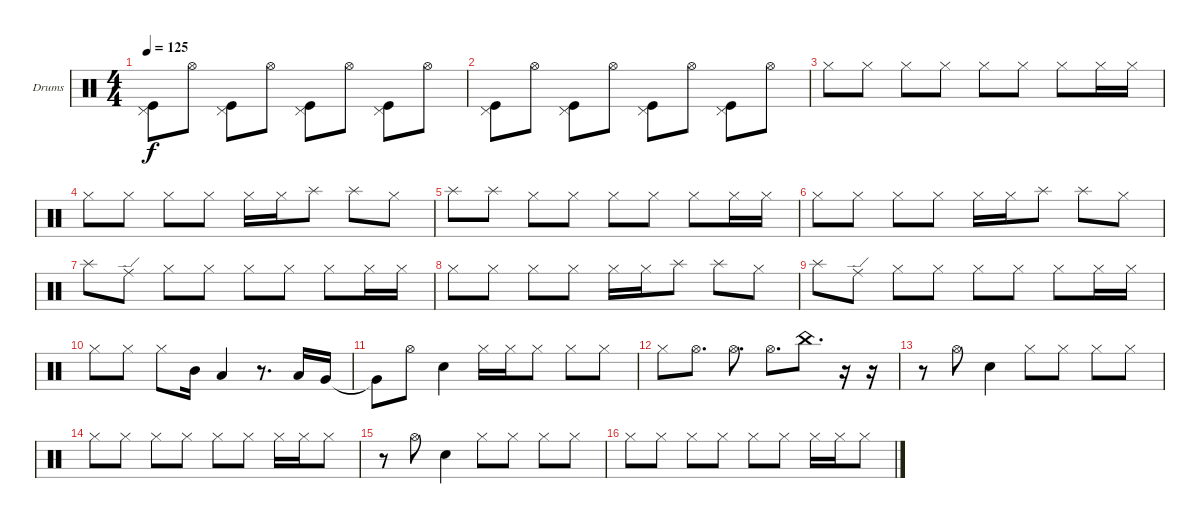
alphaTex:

\bracketExtendMode groupsimilarinstruments
\firstSystemTrackNameOrientation horizontal
\otherSystemsTrackNameOrientation horizontal
\track ("Drumkit" "Drums") {instrument percussion}
\staff {score}
\articulation defaults
\ts (4 4)
\tempo 125
\clef neutral
\ks c
("Pedal Hi-Hat (hit)" "Kick (hit)").8{dy f} "Hi-Hat (open)".8 ("Pedal Hi-Hat (hit)" "Kick (hit)").8 "Hi-Hat (open)".8 ("Pedal Hi-Hat (hit)" "Kick (hit)").8 "Hi-Hat (open)".8 ("Pedal Hi-Hat (hit)" "Kick (hit)").8 "Hi-Hat (open)".8 |
("Pedal Hi-Hat (hit)" "Kick (hit)").8 "Hi-Hat (open)".8 ("Pedal Hi-Hat (hit)" "Kick (hit)").8 "Hi-Hat (open)".8 ("Pedal Hi-Hat (hit)" "Kick (hit)").8 "Hi-Hat (open)".8 ("Pedal Hi-Hat (hit)" "Kick (hit)").8 "Hi-Hat (open)".8 |
"Hi-Hat (closed)".8 "Hi-Hat (closed)".8 "Hi-Hat (closed)".8 "Hi-Hat (closed)".8 "Hi-Hat (closed)".8 "Hi-Hat (closed)".8 "Hi-Hat (closed)".8 "Hi-Hat (closed)".16 "Hi-Hat (closed)".16 |
"Hi-Hat (closed)".8 "Hi-Hat (closed)".8 "Hi-Hat (closed)".8 "Hi-Hat (closed)".8 "Hi-Hat (closed)".16 "Hi-Hat (closed)".16 "Splash (hit)".8 "Splash (hit)".8 "Hi-Hat (closed)".8 |
"Splash (hit)".8 "Splash (hit)".8 "Hi-Hat (closed)".8 "Hi-Hat (closed)".8 "Hi-Hat (closed)".8 "Hi-Hat (closed)".8 "Hi-Hat (closed)".8 "Hi-Hat (closed)".16 "Hi-Hat (closed)".16 |
"Hi-Hat (closed)".8 "Hi-Hat (closed)".8 "Hi-Hat (closed)".8 "Hi-Hat (closed)".8 "Hi-Hat (closed)".16 "Hi-Hat (closed)".16 "Splash (hit)".8 "Splash (hit)".8 "Hi-Hat (closed)".8 |
"Splash (hit)".8 "Ride (edge)".8 "Hi-Hat (closed)".8 "Hi-Hat (closed)".8 "Hi-Hat (closed)".8 "Hi-Hat (closed)".8 "Hi-Hat (closed)".8 "Hi-Hat (closed)".16 "Hi-Hat (closed)".16 |
"Hi-Hat (closed)".8 "Hi-Hat (closed)".8 "Hi-Hat (closed)".8 "Hi-Hat (closed)".8 "Hi-Hat (closed)".16 "Hi-Hat (closed)".16 "Splash (hit)".8 "Splash (hit)".8 "Hi-Hat (closed)".8 |
"Splash (hit)".8 "Ride (edge)".8 "Hi-Hat (closed)".8 "Hi-Hat (closed)".8 "Hi-Hat (closed)".8 "Hi-Hat (closed)".8 "Hi-Hat (closed)".8 "Hi-Hat (closed)".16 "Hi-Hat (closed)".16 |
"Hi-Hat (closed)".8 "Hi-Hat (closed)".8 "Hi-Hat (closed)".8 "Mid Tom (hit)".16 "Low Tom (hit)".4 r.8{d} "Low Tom (hit)".16 "Very Low Tom (hit)".16 |
"Very Low Tom (hit)"{t}.8 "Hi-Hat (open)".8 "Snare (hit) 2".4 "Hi-Hat (closed)".16 "Hi-Hat (closed)".16 "Hi-Hat (closed)".8 "Hi-Hat (closed)".8 "Hi-Hat (closed)".8 |
"Hi-Hat (closed)".8 "Hi-Hat (open)".8{d} "Hi-Hat (open)".8{d} "Hi-Hat (open)".8{d} "China (hit)".8{d} r.16 r.16 |
r.8 "Hi-Hat (open)".8 "Snare (hit) 2".4 "Hi-Hat (closed)".8 "Hi-Hat (closed)".8 "Hi-Hat (closed)".8 "Hi-Hat (closed)".8 |
"Hi-Hat (closed)".8 "Hi-Hat (closed)".8 "Hi-Hat (closed)".8 "Hi-Hat (closed)".8 "Hi-Hat (closed)".8 "Hi-Hat (closed)".8 "Hi-Hat (closed)".16 "Hi-Hat (closed)".16 "Hi-Hat (closed)".8 |
r.8 "Hi-Hat (open)".8 "Snare (hit) 2".4 "Hi-Hat (closed)".8 "Hi-Hat (closed)".8 "Hi-Hat (closed)".8 "Hi-Hat (closed)".8 |
"Hi-Hat (closed)".8 "Hi-Hat (closed)".8 "Hi-Hat (closed)".8 "Hi-Hat (closed)".8 "Hi-Hat (closed)".8 "Hi-Hat (closed)".8 "Hi-Hat (closed)".16 "Hi-Hat (closed)".16 "Hi-Hat (closed)".8
